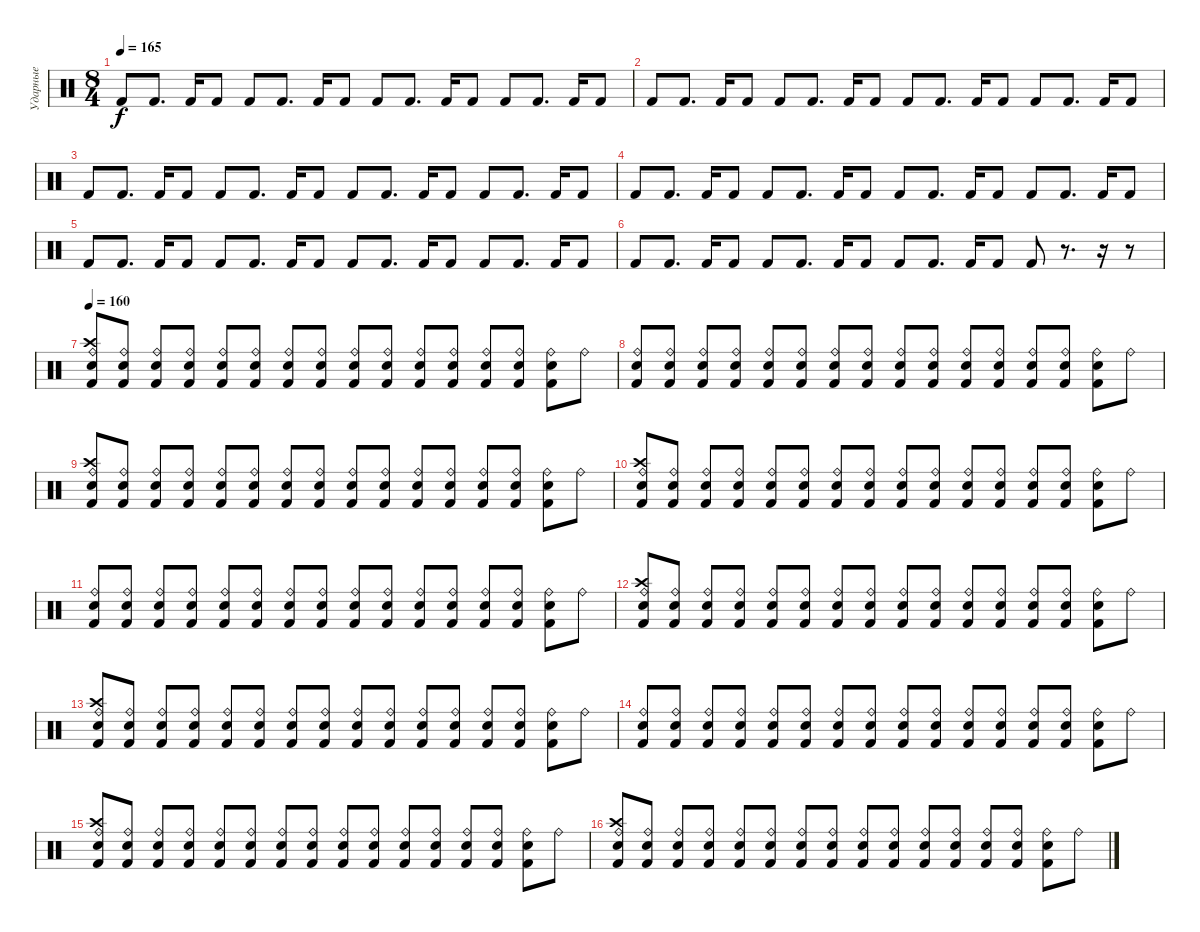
\track ("Ударные" "Ударные") {instrument percussion}
\staff {score}
\articulation defaults
\ts (8 4)
\tempo 165
\clef neutral
\ks c "Kick (hit) 2".8{dy f} "Kick (hit) 2".8{d} "Kick (hit) 2".16 "Kick (hit) 2".8 "Kick (hit) 2".8 "Kick (hit) 2".8{d} "Kick (hit) 2".16 "Kick (hit) 2".8 "Kick (hit) 2".8 "Kick (hit) 2".8{d} "Kick (hit) 2".16 "Kick (hit) 2".8 "Kick (hit) 2".8 "Kick (hit) 2".8{d} "Kick (hit) 2".16 "Kick (hit) 2".8
|
"Kick (hit) 2".8 "Kick (hit) 2".8{d} "Kick (hit) 2".16 "Kick (hit) 2".8 "Kick (hit) 2".8 "Kick (hit) 2".8{d} "Kick (hit) 2".16 "Kick (hit) 2".8 "Kick (hit) 2".8 "Kick (hit) 2".8{d} "Kick (hit) 2".16 "Kick (hit) 2".8 "Kick (hit) 2".8 "Kick (hit) 2".8{d} "Kick (hit) 2".16 "Kick (hit) 2".8 |
"Kick (hit) 2".8 "Kick (hit) 2".8{d} "Kick (hit) 2".16 "Kick (hit) 2".8 "Kick (hit) 2".8 "Kick (hit) 2".8{d} "Kick (hit) 2".16 "Kick (hit) 2".8 "Kick (hit) 2".8 "Kick (hit) 2".8{d} "Kick (hit) 2".16 "Kick (hit) 2".8 "Kick (hit) 2".8 "Kick (hit) 2".8{d} "Kick (hit) 2".16 "Kick (hit) 2".8 |
"Kick (hit) 2".8 "Kick (hit) 2".8{d} "Kick (hit) 2".16 "Kick (hit) 2".8 "Kick (hit) 2".8 "Kick (hit) 2".8{d} "Kick (hit) 2".16 "Kick (hit) 2".8 "Kick (hit) 2".8 "Kick (hit) 2".8{d} "Kick (hit) 2".16 "Kick (hit) 2".8 "Kick (hit) 2".8 "Kick (hit) 2".8{d} "Kick (hit) 2".16 "Kick (hit) 2".8 |
"Kick (hit) 2".8 "Kick (hit) 2".8{d} "Kick (hit) 2".16 "Kick (hit) 2".8 "Kick (hit) 2".8 "Kick (hit) 2".8{d} "Kick (hit) 2".16 "Kick (hit) 2".8 "Kick (hit) 2".8 "Kick (hit) 2".8{d} "Kick (hit) 2".16 "Kick (hit) 2".8 "Kick (hit) 2".8 "Kick (hit) 2".8{d} "Kick (hit) 2".16 "Kick (hit) 2".8 |
"Kick (hit) 2".8 "Kick (hit) 2".8{d} "Kick (hit) 2".16 "Kick (hit) 2".8 "Kick (hit) 2".8 "Kick (hit) 2".8{d} "Kick (hit) 2".16 "Kick (hit) 2".8 "Kick (hit) 2".8 "Kick (hit) 2".8{d} "Kick (hit) 2".16 "Kick (hit) 2".8 "Kick (hit) 2".8 r.8{d} r.16 r.8 |
\tempo 160
("Ride (bell)" "Crash high (hit)" "Kick (hit) 2" "Snare (hit) 2").8 ("Ride (bell)" "Kick (hit) 2" "Snare (hit) 2").8 ("Ride (bell)" "Kick (hit) 2" "Snare (hit) 2").8 ("Ride (bell)" "Kick (hit) 2" "Snare (hit) 2").8 ("Ride (bell)" "Kick (hit) 2" "Snare (hit) 2").8 ("Ride (bell)" "Kick (hit) 2" "Snare (hit) 2").8 ("Ride (bell)" "Kick (hit) 2" "Snare (hit) 2").8 ("Ride (bell)" "Kick (hit) 2" "Snare (hit) 2").8 ("Ride (bell)" "Snare (hit) 2" "Kick (hit) 2").8 ("Ride (bell)" "Snare (hit) 2" "Kick (hit) 2").8 ("Ride (bell)" "Snare (hit) 2" "Kick (hit) 2").8 ("Ride (bell)" "Snare (hit) 2" "Kick (hit) 2").8 ("Ride (bell)" "Snare (hit) 2" "Kick (hit) 2").8 ("Ride (bell)" "Snare (hit) 2" "Kick (hit) 2").8 ("Ride (bell)" "Snare (hit) 2" "Kick (hit) 2").8 "Ride (bell)".8 |
("Ride (bell)" "Kick (hit) 2" "Snare (hit) 2").8 ("Ride (bell)" "Kick (hit) 2" "Snare (hit) 2").8 ("Ride (bell)" "Kick (hit) 2" "Snare (hit) 2").8 ("Ride (bell)" "Kick (hit) 2" "Snare (hit) 2").8 ("Ride (bell)" "Kick (hit) 2" "Snare (hit) 2").8 ("Ride (bell)" "Kick (hit) 2" "Snare (hit) 2").8 ("Ride (bell)" "Kick (hit) 2" "Snare (hit) 2").8 ("Ride (bell)" "Kick (hit) 2" "Snare (hit) 2").8 ("Ride (bell)" "Snare (hit) 2" "Kick (hit) 2").8 ("Ride (bell)" "Snare (hit) 2" "Kick (hit) 2").8 ("Ride (bell)" "Snare (hit) 2" "Kick (hit) 2").8 ("Ride (bell)" "Snare (hit) 2" "Kick (hit) 2").8 ("Ride (bell)" "Snare (hit) 2" "Kick (hit) 2").8 ("Ride (bell)" "Snare (hit) 2" "Kick (hit) 2").8 ("Ride (bell)" "Snare (hit) 2" "Kick (hit) 2").8 "Ride (bell)".8 |
("Ride (bell)" "Crash high (hit)" "Kick (hit) 2" "Snare (hit) 2").8 ("Ride (bell)" "Kick (hit) 2" "Snare (hit) 2").8 ("Ride (bell)" "Kick (hit) 2" "Snare (hit) 2").8 ("Ride (bell)" "Kick (hit) 2" "Snare (hit) 2").8 ("Ride (bell)" "Kick (hit) 2" "Snare (hit) 2").8 ("Ride (bell)" "Kick (hit) 2" "Snare (hit) 2").8 ("Ride (bell)" "Kick (hit) 2" "Snare (hit) 2").8 ("Ride (bell)" "Kick (hit) 2" "Snare (hit) 2").8 ("Ride (bell)" "Snare (hit) 2" "Kick (hit) 2").8 ("Ride (bell)" "Snare (hit) 2" "Kick (hit) 2").8 ("Ride (bell)" "Snare (hit) 2" "Kick (hit) 2").8 ("Ride (bell)" "Snare (hit) 2" "Kick (hit) 2").8 ("Ride (bell)" "Snare (hit) 2" "Kick (hit) 2").8 ("Ride (bell)" "Snare (hit) 2" "Kick (hit) 2").8 ("Ride (bell)" "Snare (hit) 2" "Kick (hit) 2").8 "Ride (bell)".8 |
("Ride (bell)" "Crash high (hit)" "Kick (hit) 2" "Snare (hit) 2").8 ("Ride (bell)" "Kick (hit) 2" "Snare (hit) 2").8 ("Ride (bell)" "Kick (hit) 2" "Snare (hit) 2").8 ("Ride (bell)" "Kick (hit) 2" "Snare (hit) 2").8 ("Ride (bell)" "Kick (hit) 2" "Snare (hit) 2").8 ("Ride (bell)" "Kick (hit) 2" "Snare (hit) 2").8 ("Ride (bell)" "Kick (hit) 2" "Snare (hit) 2").8 ("Ride (bell)" "Kick (hit) 2" "Snare (hit) 2").8 ("Ride (bell)" "Snare (hit) 2" "Kick (hit) 2").8 ("Ride (bell)" "Snare (hit) 2" "Kick (hit) 2").8 ("Ride (bell)" "Snare (hit) 2" "Kick (hit) 2").8 ("Ride (bell)" "Snare (hit) 2" "Kick (hit) 2").8 ("Ride (bell)" "Snare (hit) 2" "Kick (hit) 2").8 ("Ride (bell)" "Snare (hit) 2" "Kick (hit) 2").8 ("Ride (bell)" "Snare (hit) 2" "Kick (hit) 2").8 "Ride (bell)".8 |
("Ride (bell)" "Kick (hit) 2" "Snare (hit) 2").8 ("Ride (bell)" "Kick (hit) 2" "Snare (hit) 2").8 ("Ride (bell)" "Kick (hit) 2" "Snare (hit) 2").8 ("Ride (bell)" "Kick (hit) 2" "Snare (hit) 2").8 ("Ride (bell)" "Kick (hit) 2" "Snare (hit) 2").8 ("Ride (bell)" "Kick (hit) 2" "Snare (hit) 2").8 ("Ride (bell)" "Kick (hit) 2" "Snare (hit) 2").8 ("Ride (bell)" "Kick (hit) 2" "Snare (hit) 2").8 ("Ride (bell)" "Snare (hit) 2" "Kick (hit) 2").8 ("Ride (bell)" "Snare (hit) 2" "Kick (hit) 2").8 ("Ride (bell)" "Snare (hit) 2" "Kick (hit) 2").8 ("Ride (bell)" "Snare (hit) 2" "Kick (hit) 2").8 ("Ride (bell)" "Snare (hit) 2" "Kick (hit) 2").8 ("Ride (bell)" "Snare (hit) 2" "Kick (hit) 2").8 ("Ride (bell)" "Snare (hit) 2" "Kick (hit) 2").8 "Ride (bell)".8 |
("Ride (bell)" "Crash high (hit)" "Kick (hit) 2" "Snare (hit) 2").8 ("Ride (bell)" "Kick (hit) 2" "Snare (hit) 2").8 ("Ride (bell)" "Kick (hit) 2" "Snare (hit) 2").8 ("Ride (bell)" "Kick (hit) 2" "Snare (hit) 2").8 ("Ride (bell)" "Kick (hit) 2" "Snare (hit) 2").8 ("Ride (bell)" "Kick (hit) 2" "Snare (hit) 2").8 ("Ride (bell)" "Kick (hit) 2" "Snare (hit) 2").8 ("Ride (bell)" "Kick (hit) 2" "Snare (hit) 2").8 ("Ride (bell)" "Snare (hit) 2" "Kick (hit) 2").8 ("Ride (bell)" "Snare (hit) 2" "Kick (hit) 2").8 ("Ride (bell)" "Snare (hit) 2" "Kick (hit) 2").8 ("Ride (bell)" "Snare (hit) 2" "Kick (hit) 2").8 ("Ride (bell)" "Snare (hit) 2" "Kick (hit) 2").8 ("Ride (bell)" "Snare (hit) 2" "Kick (hit) 2").8 ("Ride (bell)" "Snare (hit) 2" "Kick (hit) 2").8 "Ride (bell)".8 |
("Ride (bell)" "Crash high (hit)" "Kick (hit) 2" "Snare (hit) 2").8 ("Ride (bell)" "Kick (hit) 2" "Snare (hit) 2").8 ("Ride (bell)" "Kick (hit) 2" "Snare (hit) 2").8 ("Ride (bell)" "Kick (hit) 2" "Snare (hit) 2").8 ("Ride (bell)" "Kick (hit) 2" "Snare (hit) 2").8 ("Ride (bell)" "Kick (hit) 2" "Snare (hit) 2").8 ("Ride (bell)" "Kick (hit) 2" "Snare (hit) 2").8 ("Ride (bell)" "Kick (hit) 2" "Snare (hit) 2").8 ("Ride (bell)" "Snare (hit) 2" "Kick (hit) 2").8 ("Ride (bell)" "Snare (hit) 2" "Kick (hit) 2").8 ("Ride (bell)" "Snare (hit) 2" "Kick (hit) 2").8 ("Ride (bell)" "Snare (hit) 2" "Kick (hit) 2").8 ("Ride (bell)" "Snare (hit) 2" "Kick (hit) 2").8 ("Ride (bell)" "Snare (hit) 2" "Kick (hit) 2").8 ("Ride (bell)" "Snare (hit) 2" "Kick (hit) 2").8 "Ride (bell)".8 |
("Ride (bell)" "Kick (hit) 2" "Snare (hit) 2").8 ("Ride (bell)" "Kick (hit) 2" "Snare (hit) 2").8 ("Ride (bell)" "Kick (hit) 2" "Snare (hit) 2").8 ("Ride (bell)" "Kick (hit) 2" "Snare (hit) 2").8 ("Ride (bell)" "Kick (hit) 2" "Snare (hit) 2").8 ("Ride (bell)" "Kick (hit) 2" "Snare (hit) 2").8 ("Ride (bell)" "Kick (hit) 2" "Snare (hit) 2").8 ("Ride (bell)" "Kick (hit) 2" "Snare (hit) 2").8 ("Ride (bell)" "Snare (hit) 2" "Kick (hit) 2").8 ("Ride (bell)" "Snare (hit) 2" "Kick (hit) 2").8 ("Ride (bell)" "Snare (hit) 2" "Kick (hit) 2").8 ("Ride (bell)" "Snare (hit) 2" "Kick (hit) 2").8 ("Ride (bell)" "Snare (hit) 2" "Kick (hit) 2").8 ("Ride (bell)" "Snare (hit) 2" "Kick (hit) 2").8 ("Ride (bell)" "Snare (hit) 2" "Kick (hit) 2").8 "Ride (bell)".8 |
("Ride (bell)" "Crash high (hit)" "Kick (hit) 2" "Snare (hit) 2").8 ("Ride (bell)" "Kick (hit) 2" "Snare (hit) 2").8 ("Ride (bell)" "Kick (hit) 2" "Snare (hit) 2").8 ("Ride (bell)" "Kick (hit) 2" "Snare (hit) 2").8 ("Ride (bell)" "Kick (hit) 2" "Snare (hit) 2").8 ("Ride (bell)" "Kick (hit) 2" "Snare (hit) 2").8 ("Ride (bell)" "Kick (hit) 2" "Snare (hit) 2").8 ("Ride (bell)" "Kick (hit) 2" "Snare (hit) 2").8 ("Ride (bell)" "Snare (hit) 2" "Kick (hit) 2").8 ("Ride (bell)" "Snare (hit) 2" "Kick (hit) 2").8 ("Ride (bell)" "Snare (hit) 2" "Kick (hit) 2").8 ("Ride (bell)" "Snare (hit) 2" "Kick (hit) 2").8 ("Ride (bell)" "Snare (hit) 2" "Kick (hit) 2").8 ("Ride (bell)" "Snare (hit) 2" "Kick (hit) 2").8 ("Ride (bell)" "Snare (hit) 2" "Kick (hit) 2").8 "Ride (bell)".8 |
("Ride (bell)" "Crash high (hit)" "Kick (hit) 2" "Snare (hit) 2").8 ("Ride (bell)" "Kick (hit) 2" "Snare (hit) 2").8 ("Ride (bell)" "Kick (hit) 2" "Snare (hit) 2").8 ("Ride (bell)" "Kick (hit) 2" "Snare (hit) 2").8 ("Ride (bell)" "Kick (hit) 2" "Snare (hit) 2").8 ("Ride (bell)" "Kick (hit) 2" "Snare (hit) 2").8 ("Ride (bell)" "Kick (hit) 2" "Snare (hit) 2").8 ("Ride (bell)" "Kick (hit) 2" "Snare (hit) 2").8 ("Ride (bell)" "Snare (hit) 2" "Kick (hit) 2").8 ("Ride (bell)" "Snare (hit) 2" "Kick (hit) 2").8 ("Ride (bell)" "Snare (hit) 2" "Kick (hit) 2").8 ("Ride (bell)" "Snare (hit) 2" "Kick (hit) 2").8 ("Ride (bell)" "Snare (hit) 2" "Kick (hit) 2").8 ("Ride (bell)" "Snare (hit) 2" "Kick (hit) 2").8 ("Ride (bell)" "Snare (hit) 2" "Kick (hit) 2").8 "Ride (bell)".8
